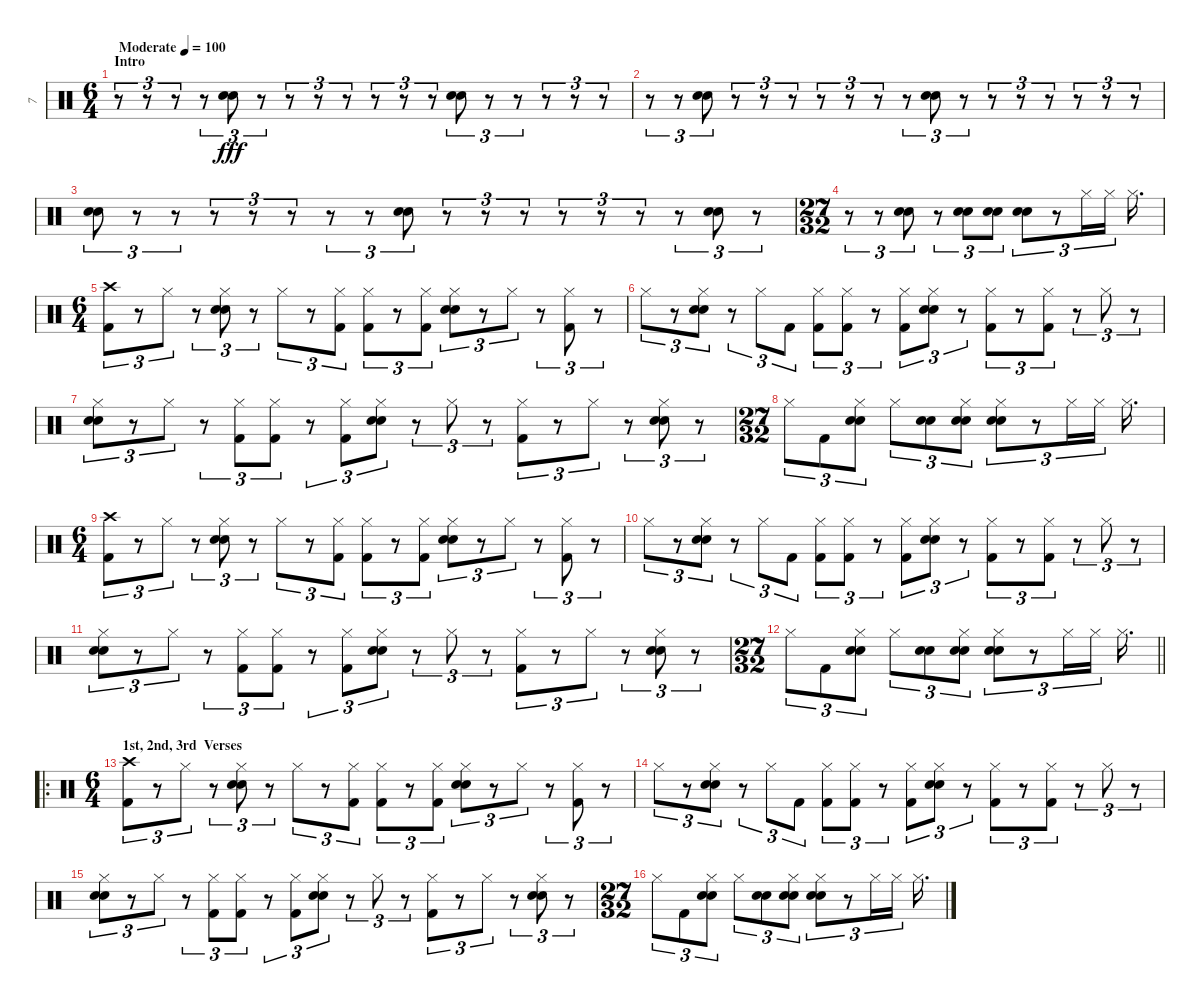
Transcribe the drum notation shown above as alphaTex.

\track ("7" "7") {instrument percussion}
\staff {score}
\articulation defaults
\ts (6 4)
\section ("" "Intro")
\tempo (100 "Moderate")
\clef neutral
\ks c
r.8{tu (3 2) dy fff} r.8{tu (3 2)} r.8{tu (3 2)} r.8{tu (3 2)} ("Hand Clap (hit)" "Electric Snare (hit)").8{tu (3 2)} r.8{tu (3 2)} r.8{tu (3 2)} r.8{tu (3 2)} r.8{tu (3 2)} r.8{tu (3 2)} r.8{tu (3 2)} r.8{tu (3 2)} ("Hand Clap (hit)" "Electric Snare (hit)").8{tu (3 2)} r.8{tu (3 2)} r.8{tu (3 2)} r.8{tu (3 2)} r.8{tu (3 2)} r.8{tu (3 2)} |
r.8{tu (3 2)} r.8{tu (3 2)} ("Hand Clap (hit)" "Electric Snare (hit)").8{tu (3 2)} r.8{tu (3 2)} r.8{tu (3 2)} r.8{tu (3 2)} r.8{tu (3 2)} r.8{tu (3 2)} r.8{tu (3 2)} r.8{tu (3 2)} ("Hand Clap (hit)" "Electric Snare (hit)").8{tu (3 2)} r.8{tu (3 2)} r.8{tu (3 2)} r.8{tu (3 2)} r.8{tu (3 2)} r.8{tu (3 2)} r.8{tu (3 2)} r.8{tu (3 2)} |
("Hand Clap (hit)" "Electric Snare (hit)").8{tu (3 2)} r.8{tu (3 2)} r.8{tu (3 2)} r.8{tu (3 2)} r.8{tu (3 2)} r.8{tu (3 2)} r.8{tu (3 2)} r.8{tu (3 2)} ("Hand Clap (hit)" "Electric Snare (hit)").8{tu (3 2)} r.8{tu (3 2)} r.8{tu (3 2)} r.8{tu (3 2)} r.8{tu (3 2)} r.8{tu (3 2)} r.8{tu (3 2)} r.8{tu (3 2)} ("Hand Clap (hit)" "Electric Snare (hit)").8{tu (3 2)} r.8{tu (3 2)} |
\ts (27 32)
r.8{tu (3 2)} r.8{tu (3 2)} ("Hand Clap (hit)" "Electric Snare (hit)").8{tu (3 2)} r.8{tu (3 2)} ("Hand Clap (hit)" "Electric Snare (hit)").8{tu (3 2)} ("Hand Clap (hit)" "Electric Snare (hit)").8{tu (3 2)} ("Hand Clap (hit)" "Electric Snare (hit)").8{tu (3 2)} r.8{tu (3 2)} "Hi-Hat (closed)".16{tu (3 2)} "Hi-Hat (closed)".16{tu (3 2)} "Hi-Hat (closed)".16{d} |
\ts (6 4)
("Crash high (hit)" "Kick (hit) 2").8{tu (3 2)} r.8{tu (3 2)} "Hi-Hat (closed)".8{tu (3 2)} r.8{tu (3 2)} ("Hi-Hat (closed)" "Hand Clap (hit)" "Electric Snare (hit)").8{tu (3 2)} r.8{tu (3 2)} "Hi-Hat (closed)".8{tu (3 2)} r.8{tu (3 2)} ("Hi-Hat (closed)" "Kick (hit) 2").8{tu (3 2)} ("Hi-Hat (closed)" "Kick (hit) 2").8{tu (3 2)} r.8{tu (3 2)} ("Hi-Hat (closed)" "Kick (hit) 2").8{tu (3 2)} ("Hi-Hat (closed)" "Hand Clap (hit)" "Electric Snare (hit)").8{tu (3 2)} r.8{tu (3 2)} "Hi-Hat (closed)".8{tu (3 2)} r.8{tu (3 2)} ("Hi-Hat (closed)" "Kick (hit) 2").8{tu (3 2)} r.8{tu (3 2)} |
"Hi-Hat (closed)".8{tu (3 2)} r.8{tu (3 2)} ("Hi-Hat (closed)" "Hand Clap (hit)" "Electric Snare (hit)").8{tu (3 2)} r.8{tu (3 2)} "Hi-Hat (closed)".8{tu (3 2)} "Kick (hit) 2".8{tu (3 2)} ("Hi-Hat (closed)" "Kick (hit) 2").8{tu (3 2)} ("Hi-Hat (closed)" "Kick (hit) 2").8{tu (3 2)} r.8{tu (3 2)} ("Hi-Hat (closed)" "Kick (hit) 2").8{tu (3 2)} ("Hi-Hat (closed)" "Hand Clap (hit)" "Electric Snare (hit)").8{tu (3 2)} r.8{tu (3 2)} ("Hi-Hat (closed)" "Kick (hit) 2").8{tu (3 2)} r.8{tu (3 2)} ("Hi-Hat (closed)" "Kick (hit) 2").8{tu (3 2)} r.8{tu (3 2)} "Hi-Hat (closed)".8{tu (3 2)} r.8{tu (3 2)} |
("Hi-Hat (closed)" "Hand Clap (hit)" "Electric Snare (hit)").8{tu (3 2)} r.8{tu (3 2)} "Hi-Hat (closed)".8{tu (3 2)} r.8{tu (3 2)} ("Hi-Hat (closed)" "Kick (hit) 2").8{tu (3 2)} ("Hi-Hat (closed)" "Kick (hit) 2").8{tu (3 2)} r.8{tu (3 2)} ("Hi-Hat (closed)" "Kick (hit) 2").8{tu (3 2)} ("Hi-Hat (closed)" "Hand Clap (hit)" "Electric Snare (hit)").8{tu (3 2)} r.8{tu (3 2)} "Hi-Hat (closed)".8{tu (3 2)} r.8{tu (3 2)} ("Hi-Hat (closed)" "Kick (hit) 2").8{tu (3 2)} r.8{tu (3 2)} "Hi-Hat (closed)".8{tu (3 2)} r.8{tu (3 2)} ("Hi-Hat (closed)" "Hand Clap (hit)" "Electric Snare (hit)").8{tu (3 2)} r.8{tu (3 2)} |
\ts (27 32)
"Hi-Hat (closed)".8{tu (3 2)} "Kick (hit) 2".8{tu (3 2)} ("Hi-Hat (closed)" "Hand Clap (hit)" "Electric Snare (hit)").8{tu (3 2)} "Hi-Hat (closed)".8{tu (3 2)} ("Hand Clap (hit)" "Electric Snare (hit)").8{tu (3 2)} ("Hi-Hat (closed)" "Hand Clap (hit)" "Electric Snare (hit)").8{tu (3 2)} ("Hi-Hat (closed)" "Hand Clap (hit)" "Electric Snare (hit)").8{tu (3 2)} r.8{tu (3 2)} "Hi-Hat (closed)".16{tu (3 2)} "Hi-Hat (closed)".16{tu (3 2)} "Hi-Hat (closed)".16{d} |
\ts (6 4)
("Crash high (hit)" "Kick (hit) 2").8{tu (3 2)} r.8{tu (3 2)} "Hi-Hat (closed)".8{tu (3 2)} r.8{tu (3 2)} ("Hi-Hat (closed)" "Hand Clap (hit)" "Electric Snare (hit)").8{tu (3 2)} r.8{tu (3 2)} "Hi-Hat (closed)".8{tu (3 2)} r.8{tu (3 2)} ("Hi-Hat (closed)" "Kick (hit) 2").8{tu (3 2)} ("Hi-Hat (closed)" "Kick (hit) 2").8{tu (3 2)} r.8{tu (3 2)} ("Hi-Hat (closed)" "Kick (hit) 2").8{tu (3 2)} ("Hi-Hat (closed)" "Hand Clap (hit)" "Electric Snare (hit)").8{tu (3 2)} r.8{tu (3 2)} "Hi-Hat (closed)".8{tu (3 2)} r.8{tu (3 2)} ("Hi-Hat (closed)" "Kick (hit) 2").8{tu (3 2)} r.8{tu (3 2)} |
"Hi-Hat (closed)".8{tu (3 2)} r.8{tu (3 2)} ("Hi-Hat (closed)" "Hand Clap (hit)" "Electric Snare (hit)").8{tu (3 2)} r.8{tu (3 2)} "Hi-Hat (closed)".8{tu (3 2)} "Kick (hit) 2".8{tu (3 2)} ("Hi-Hat (closed)" "Kick (hit) 2").8{tu (3 2)} ("Hi-Hat (closed)" "Kick (hit) 2").8{tu (3 2)} r.8{tu (3 2)} ("Hi-Hat (closed)" "Kick (hit) 2").8{tu (3 2)} ("Hi-Hat (closed)" "Hand Clap (hit)" "Electric Snare (hit)").8{tu (3 2)} r.8{tu (3 2)} ("Hi-Hat (closed)" "Kick (hit) 2").8{tu (3 2)} r.8{tu (3 2)} ("Hi-Hat (closed)" "Kick (hit) 2").8{tu (3 2)} r.8{tu (3 2)} "Hi-Hat (closed)".8{tu (3 2)} r.8{tu (3 2)} |
("Hi-Hat (closed)" "Hand Clap (hit)" "Electric Snare (hit)").8{tu (3 2)} r.8{tu (3 2)} "Hi-Hat (closed)".8{tu (3 2)} r.8{tu (3 2)} ("Hi-Hat (closed)" "Kick (hit) 2").8{tu (3 2)} ("Hi-Hat (closed)" "Kick (hit) 2").8{tu (3 2)} r.8{tu (3 2)} ("Hi-Hat (closed)" "Kick (hit) 2").8{tu (3 2)} ("Hi-Hat (closed)" "Hand Clap (hit)" "Electric Snare (hit)").8{tu (3 2)} r.8{tu (3 2)} "Hi-Hat (closed)".8{tu (3 2)} r.8{tu (3 2)} ("Hi-Hat (closed)" "Kick (hit) 2").8{tu (3 2)} r.8{tu (3 2)} "Hi-Hat (closed)".8{tu (3 2)} r.8{tu (3 2)} ("Hi-Hat (closed)" "Hand Clap (hit)" "Electric Snare (hit)").8{tu (3 2)} r.8{tu (3 2)} |
\ts (27 32)
\barLineRight lightlight "Hi-Hat (closed)".8{tu (3 2)} "Kick (hit) 2".8{tu (3 2)}
("Hi-Hat (closed)" "Hand Clap (hit)" "Electric Snare (hit)").8{tu (3 2)} "Hi-Hat (closed)".8{tu (3 2)} ("Hand Clap (hit)" "Electric Snare (hit)").8{tu (3 2)} ("Hi-Hat (closed)" "Hand Clap (hit)" "Electric Snare (hit)").8{tu (3 2)} ("Hi-Hat (closed)" "Hand Clap (hit)" "Electric Snare (hit)").8{tu (3 2)} r.8{tu (3 2)} "Hi-Hat (closed)".16{tu (3 2)} "Hi-Hat (closed)".16{tu (3 2)} "Hi-Hat (closed)".16{d} |
\ro
\ts (6 4)
\section ("" "1st, 2nd, 3rd  Verses")
("Crash high (hit)" "Kick (hit) 2").8{tu (3 2)} r.8{tu (3 2)} "Hi-Hat (closed)".8{tu (3 2)} r.8{tu (3 2)} ("Hi-Hat (closed)" "Hand Clap (hit)" "Electric Snare (hit)").8{tu (3 2)} r.8{tu (3 2)} "Hi-Hat (closed)".8{tu (3 2)} r.8{tu (3 2)} ("Hi-Hat (closed)" "Kick (hit) 2").8{tu (3 2)} ("Hi-Hat (closed)" "Kick (hit) 2").8{tu (3 2)} r.8{tu (3 2)} ("Hi-Hat (closed)" "Kick (hit) 2").8{tu (3 2)} ("Hi-Hat (closed)" "Hand Clap (hit)" "Electric Snare (hit)").8{tu (3 2)} r.8{tu (3 2)} "Hi-Hat (closed)".8{tu (3 2)} r.8{tu (3 2)} ("Hi-Hat (closed)" "Kick (hit) 2").8{tu (3 2)} r.8{tu (3 2)} |
"Hi-Hat (closed)".8{tu (3 2)} r.8{tu (3 2)} ("Hi-Hat (closed)" "Hand Clap (hit)" "Electric Snare (hit)").8{tu (3 2)} r.8{tu (3 2)} "Hi-Hat (closed)".8{tu (3 2)} "Kick (hit) 2".8{tu (3 2)} ("Hi-Hat (closed)" "Kick (hit) 2").8{tu (3 2)} ("Hi-Hat (closed)" "Kick (hit) 2").8{tu (3 2)} r.8{tu (3 2)} ("Hi-Hat (closed)" "Kick (hit) 2").8{tu (3 2)} ("Hi-Hat (closed)" "Hand Clap (hit)" "Electric Snare (hit)").8{tu (3 2)} r.8{tu (3 2)} ("Hi-Hat (closed)" "Kick (hit) 2").8{tu (3 2)} r.8{tu (3 2)} ("Hi-Hat (closed)" "Kick (hit) 2").8{tu (3 2)} r.8{tu (3 2)} "Hi-Hat (closed)".8{tu (3 2)} r.8{tu (3 2)} |
("Hi-Hat (closed)" "Hand Clap (hit)" "Electric Snare (hit)").8{tu (3 2)} r.8{tu (3 2)} "Hi-Hat (closed)".8{tu (3 2)} r.8{tu (3 2)} ("Hi-Hat (closed)" "Kick (hit) 2").8{tu (3 2)} ("Hi-Hat (closed)" "Kick (hit) 2").8{tu (3 2)} r.8{tu (3 2)} ("Hi-Hat (closed)" "Kick (hit) 2").8{tu (3 2)} ("Hi-Hat (closed)" "Hand Clap (hit)" "Electric Snare (hit)").8{tu (3 2)} r.8{tu (3 2)} "Hi-Hat (closed)".8{tu (3 2)} r.8{tu (3 2)} ("Hi-Hat (closed)" "Kick (hit) 2").8{tu (3 2)} r.8{tu (3 2)} "Hi-Hat (closed)".8{tu (3 2)} r.8{tu (3 2)} ("Hi-Hat (closed)" "Hand Clap (hit)" "Electric Snare (hit)").8{tu (3 2)} r.8{tu (3 2)} |
\ts (27 32)
"Hi-Hat (closed)".8{tu (3 2)} "Kick (hit) 2".8{tu (3 2)} ("Hi-Hat (closed)" "Hand Clap (hit)" "Electric Snare (hit)").8{tu (3 2)} "Hi-Hat (closed)".8{tu (3 2)} ("Hand Clap (hit)" "Electric Snare (hit)").8{tu (3 2)} ("Hi-Hat (closed)" "Hand Clap (hit)" "Electric Snare (hit)").8{tu (3 2)} ("Hi-Hat (closed)" "Hand Clap (hit)" "Electric Snare (hit)").8{tu (3 2)} r.8{tu (3 2)} "Hi-Hat (closed)".16{tu (3 2)} "Hi-Hat (closed)".16{tu (3 2)} "Hi-Hat (closed)".16{d}
